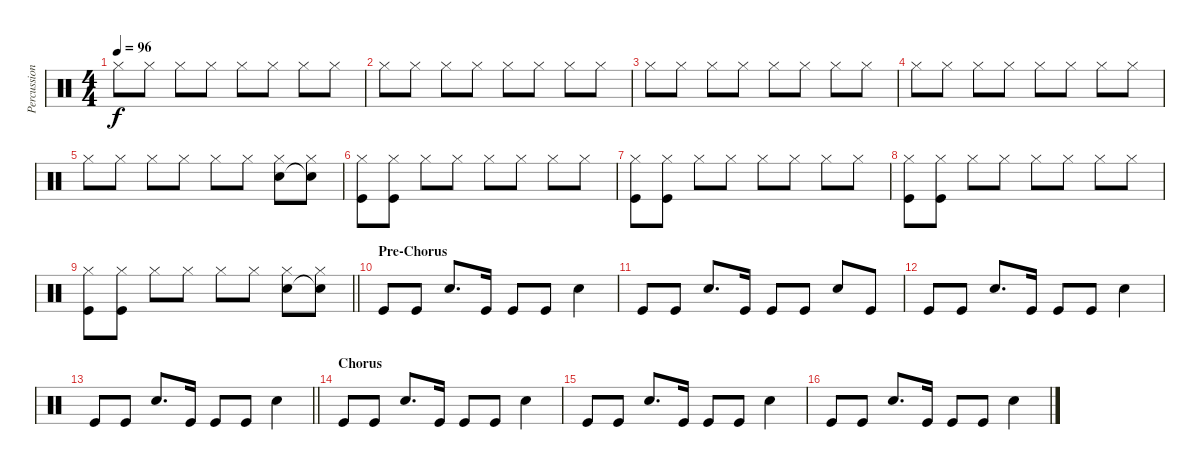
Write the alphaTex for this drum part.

\track ("Percussion" "Percussion") {instrument percussion}
\staff {score}
\articulation defaults
\ts (4 4)
\tempo 96
\clef neutral
\ks c "Hi-Hat (closed)".8{dy f} "Hi-Hat (closed)".8 "Hi-Hat (closed)".8 "Hi-Hat (closed)".8 "Hi-Hat (closed)".8 "Hi-Hat (closed)".8 "Hi-Hat (closed)".8 "Hi-Hat (closed)".8
|
"Hi-Hat (closed)".8 "Hi-Hat (closed)".8 "Hi-Hat (closed)".8 "Hi-Hat (closed)".8 "Hi-Hat (closed)".8 "Hi-Hat (closed)".8 "Hi-Hat (closed)".8 "Hi-Hat (closed)".8 |
"Hi-Hat (closed)".8 "Hi-Hat (closed)".8 "Hi-Hat (closed)".8 "Hi-Hat (closed)".8 "Hi-Hat (closed)".8 "Hi-Hat (closed)".8 "Hi-Hat (closed)".8 "Hi-Hat (closed)".8 |
"Hi-Hat (closed)".8 "Hi-Hat (closed)".8 "Hi-Hat (closed)".8 "Hi-Hat (closed)".8 "Hi-Hat (closed)".8 "Hi-Hat (closed)".8 "Hi-Hat (closed)".8 "Hi-Hat (closed)".8 |
"Hi-Hat (closed)".8 "Hi-Hat (closed)".8 "Hi-Hat (closed)".8 "Hi-Hat (closed)".8 "Hi-Hat (closed)".8 "Hi-Hat (closed)".8 ("Hi-Hat (closed)" "Electric Snare (hit)").8 ("Hi-Hat (closed)" "Electric Snare (hit)"{t}).8 |
("Hi-Hat (closed)" "Kick (hit)").8 ("Hi-Hat (closed)" "Kick (hit)").8 "Hi-Hat (closed)".8 "Hi-Hat (closed)".8 "Hi-Hat (closed)".8 "Hi-Hat (closed)".8 "Hi-Hat (closed)".8 "Hi-Hat (closed)".8 |
("Hi-Hat (closed)" "Kick (hit)").8 ("Hi-Hat (closed)" "Kick (hit)").8 "Hi-Hat (closed)".8 "Hi-Hat (closed)".8 "Hi-Hat (closed)".8 "Hi-Hat (closed)".8 "Hi-Hat (closed)".8 "Hi-Hat (closed)".8 |
("Hi-Hat (closed)" "Kick (hit)").8 ("Hi-Hat (closed)" "Kick (hit)").8 "Hi-Hat (closed)".8 "Hi-Hat (closed)".8 "Hi-Hat (closed)".8 "Hi-Hat (closed)".8 "Hi-Hat (closed)".8 "Hi-Hat (closed)".8 |
\barLineRight lightlight
("Hi-Hat (closed)" "Kick (hit)").8 ("Hi-Hat (closed)" "Kick (hit)").8 "Hi-Hat (closed)".8 "Hi-Hat (closed)".8 "Hi-Hat (closed)".8 "Hi-Hat (closed)".8 ("Hi-Hat (closed)" "Electric Snare (hit)").8 ("Hi-Hat (closed)" "Snare (hit)"{t}).8 |
\section ("" "Pre-Chorus")
"Kick (hit)".8 "Kick (hit)".8 "Electric Snare (hit)".8{d} "Kick (hit)".16 "Kick (hit)".8 "Kick (hit)".8 "Electric Snare (hit)".4 |
"Kick (hit)".8 "Kick (hit)".8 "Electric Snare (hit)".8{d} "Kick (hit)".16 "Kick (hit)".8 "Kick (hit)".8 "Electric Snare (hit)".8 "Kick (hit)".8 |
"Kick (hit)".8 "Kick (hit)".8 "Electric Snare (hit)".8{d} "Kick (hit)".16 "Kick (hit)".8 "Kick (hit)".8 "Electric Snare (hit)".4 |
\barLineRight lightlight "Kick (hit)".8 "Kick (hit)".8 "Electric Snare (hit)".8{d} "Kick (hit)".16 "Kick (hit)".8 "Kick (hit)".8 "Electric Snare (hit)".4
|
\section ("" "Chorus")
"Kick (hit)".8 "Kick (hit)".8 "Electric Snare (hit)".8{d} "Kick (hit)".16 "Kick (hit)".8 "Kick (hit)".8 "Electric Snare (hit)".4 |
"Kick (hit)".8 "Kick (hit)".8 "Electric Snare (hit)".8{d} "Kick (hit)".16 "Kick (hit)".8 "Kick (hit)".8 "Electric Snare (hit)".4 |
"Kick (hit)".8 "Kick (hit)".8 "Electric Snare (hit)".8{d} "Kick (hit)".16 "Kick (hit)".8 "Kick (hit)".8 "Electric Snare (hit)".4
